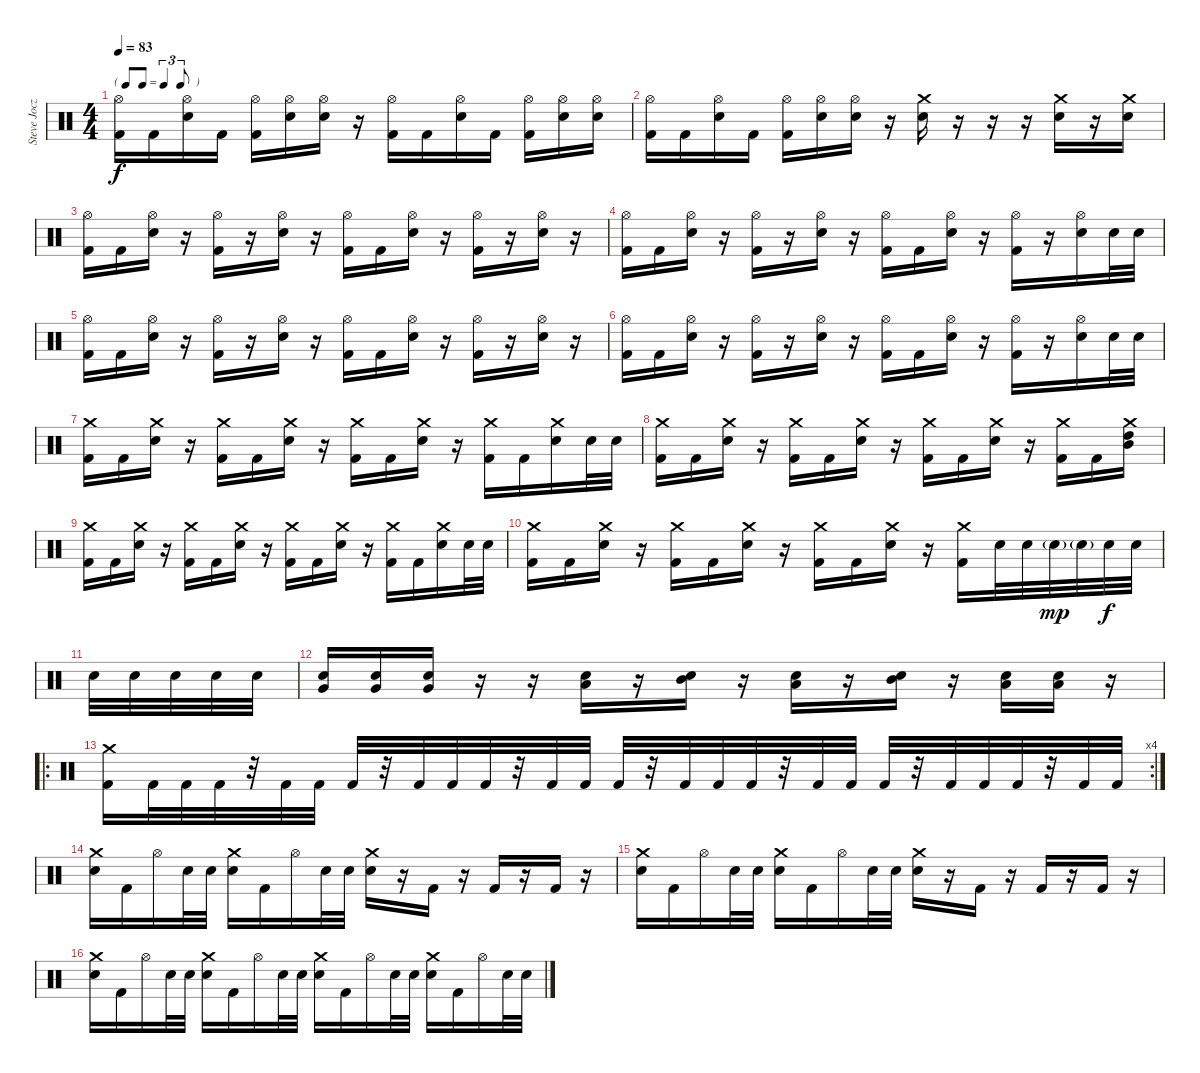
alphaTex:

\track ("Steve Jocz" "Steve Jocz") {instrument percussion}
\staff {score}
\articulation defaults
\ts (4 4)
\tf triplet8th
\tempo 83
\clef neutral
\ks c
("Hi-Hat (open)" "Kick (hit) 2").16{dy f} "Kick (hit) 2".16 ("Hi-Hat (open)" "Electric Snare (hit)").16 "Kick (hit) 2".16 ("Hi-Hat (open)" "Kick (hit) 2").16 ("Hi-Hat (open)" "Electric Snare (hit)").16 ("Hi-Hat (open)" "Electric Snare (hit)").16 r.16 ("Hi-Hat (open)" "Kick (hit) 2").16 "Kick (hit) 2".16 ("Hi-Hat (open)" "Electric Snare (hit)").16 "Kick (hit) 2".16 ("Hi-Hat (open)" "Kick (hit) 2").16 ("Hi-Hat (open)" "Electric Snare (hit)").16 ("Hi-Hat (open)" "Electric Snare (hit)").16 |
("Hi-Hat (open)" "Kick (hit) 2").16 "Kick (hit) 2".16 ("Hi-Hat (open)" "Electric Snare (hit)").16 "Kick (hit) 2".16 ("Hi-Hat (open)" "Kick (hit) 2").16 ("Hi-Hat (open)" "Electric Snare (hit)").16 ("Hi-Hat (open)" "Electric Snare (hit)").16 r.16 ("Electric Snare (hit)" "Crash medium (hit)").16 r.16 r.16 r.16 ("Crash medium (hit)" "Electric Snare (hit)").16 r.16 ("Crash medium (hit)" "Electric Snare (hit)").16 |
("Hi-Hat (open)" "Kick (hit) 2").16 "Kick (hit) 2".16 ("Hi-Hat (open)" "Electric Snare (hit)").16 r.16 ("Hi-Hat (open)" "Kick (hit) 2").16 r.16 ("Hi-Hat (open)" "Electric Snare (hit)").16 r.16 ("Hi-Hat (open)" "Kick (hit) 2").16 "Kick (hit) 2".16 ("Hi-Hat (open)" "Electric Snare (hit)").16 r.16 ("Hi-Hat (open)" "Kick (hit) 2").16 r.16 ("Hi-Hat (open)" "Electric Snare (hit)").16 r.16 |
("Hi-Hat (open)" "Kick (hit) 2").16 "Kick (hit) 2".16 ("Hi-Hat (open)" "Electric Snare (hit)").16 r.16 ("Hi-Hat (open)" "Kick (hit) 2").16 r.16 ("Hi-Hat (open)" "Electric Snare (hit)").16 r.16 ("Hi-Hat (open)" "Kick (hit) 2").16 "Kick (hit) 2".16 ("Hi-Hat (open)" "Electric Snare (hit)").16 r.16 ("Hi-Hat (open)" "Kick (hit) 2").16 r.16 ("Hi-Hat (open)" "Electric Snare (hit)").16 "Electric Snare (hit)".32 "Electric Snare (hit)".32 |
("Hi-Hat (open)" "Kick (hit) 2").16 "Kick (hit) 2".16 ("Hi-Hat (open)" "Electric Snare (hit)").16 r.16 ("Hi-Hat (open)" "Kick (hit) 2").16 r.16 ("Hi-Hat (open)" "Electric Snare (hit)").16 r.16 ("Hi-Hat (open)" "Kick (hit) 2").16 "Kick (hit) 2".16 ("Hi-Hat (open)" "Electric Snare (hit)").16 r.16 ("Hi-Hat (open)" "Kick (hit) 2").16 r.16 ("Hi-Hat (open)" "Electric Snare (hit)").16 r.16 |
("Hi-Hat (open)" "Kick (hit) 2").16 "Kick (hit) 2".16 ("Hi-Hat (open)" "Electric Snare (hit)").16 r.16 ("Hi-Hat (open)" "Kick (hit) 2").16 r.16 ("Hi-Hat (open)" "Electric Snare (hit)").16 r.16 ("Hi-Hat (open)" "Kick (hit) 2").16 "Kick (hit) 2".16 ("Hi-Hat (open)" "Electric Snare (hit)").16 r.16 ("Hi-Hat (open)" "Kick (hit) 2").16 r.16 ("Hi-Hat (open)" "Electric Snare (hit)").16 "Electric Snare (hit)".32 "Electric Snare (hit)".32 |
("Crash medium (hit)" "Kick (hit) 2").16 "Kick (hit) 2".16 ("Crash medium (hit)" "Electric Snare (hit)").16 r.16 ("Crash medium (hit)" "Kick (hit) 2").16 "Kick (hit) 2".16 ("Crash medium (hit)" "Electric Snare (hit)").16 r.16 ("Crash medium (hit)" "Kick (hit) 2").16 "Kick (hit) 2".16 ("Crash medium (hit)" "Electric Snare (hit)").16 r.16 ("Crash medium (hit)" "Kick (hit) 2").16 "Kick (hit) 2".16 ("Crash medium (hit)" "Electric Snare (hit)").16 "Electric Snare (hit)".32 "Electric Snare (hit)".32 |
("Crash medium (hit)" "Kick (hit) 2").16 "Kick (hit) 2".16 ("Crash medium (hit)" "Electric Snare (hit)").16 r.16 ("Crash medium (hit)" "Kick (hit) 2").16 "Kick (hit) 2".16 ("Crash medium (hit)" "Electric Snare (hit)").16 r.16 ("Crash medium (hit)" "Kick (hit) 2").16 "Kick (hit) 2".16 ("Crash medium (hit)" "Electric Snare (hit)").16 r.16 ("Crash medium (hit)" "Kick (hit) 2").16 "Kick (hit) 2".16 ("Crash medium (hit)" "Mid Tom (hit)" "High Tom (hit)").16 |
("Crash medium (hit)" "Kick (hit) 2").16 "Kick (hit) 2".16 ("Crash medium (hit)" "Electric Snare (hit)").16 r.16 ("Crash medium (hit)" "Kick (hit) 2").16 "Kick (hit) 2".16 ("Crash medium (hit)" "Electric Snare (hit)").16 r.16 ("Crash medium (hit)" "Kick (hit) 2").16 "Kick (hit) 2".16 ("Crash medium (hit)" "Electric Snare (hit)").16 r.16 ("Crash medium (hit)" "Kick (hit) 2").16 "Kick (hit) 2".16 ("Crash medium (hit)" "Electric Snare (hit)").16 "Electric Snare (hit)".32 "Electric Snare (hit)".32 |
("Crash medium (hit)" "Kick (hit) 2").16 "Kick (hit) 2".16 ("Crash medium (hit)" "Electric Snare (hit)").16 r.16 ("Crash medium (hit)" "Kick (hit) 2").16 "Kick (hit) 2".16 ("Crash medium (hit)" "Electric Snare (hit)").16 r.16 ("Crash medium (hit)" "Kick (hit) 2").16 "Kick (hit) 2".16 ("Crash medium (hit)" "Electric Snare (hit)").16 r.16 ("Crash medium (hit)" "Kick (hit) 2").16 "Electric Snare (hit)".32 "Electric Snare (hit)".32 "Electric Snare (hit)"{g}.32{dy mp} "Electric Snare (hit)"{g}.32 "Electric Snare (hit)".32{dy f} "Electric Snare (hit)".32 |
"Electric Snare (hit)".32 "Electric Snare (hit)".32 "Electric Snare (hit)".32 "Electric Snare (hit)".32 "Electric Snare (hit)".32 |
("Very Low Tom (hit)" "Electric Snare (hit)").16 ("Very Low Tom (hit)" "Electric Snare (hit)").16 ("Very Low Tom (hit)" "Electric Snare (hit)").16 r.16 r.16 ("Low Tom (hit)" "Electric Snare (hit)").16 r.16 ("Mid Tom (hit)" "Electric Snare (hit)").16 r.16 ("Low Tom (hit)" "Electric Snare (hit)").16 r.16 ("Mid Tom (hit)" "Electric Snare (hit)").16 r.16 ("Low Tom (hit)" "Electric Snare (hit)").16 ("Low Tom (hit)" "Electric Snare (hit)").16 r.16 |
\ro
\rc 4
("Crash medium (hit)" "Kick (hit) 2").16 "Kick (hit) 2".32 "Kick (hit) 2".32 "Kick (hit) 2".32 r.32 "Kick (hit) 2".32 "Kick (hit) 2".32 "Kick (hit) 2".32 r.32 "Kick (hit) 2".32 "Kick (hit) 2".32 "Kick (hit) 2".32 r.32 "Kick (hit) 2".32 "Kick (hit) 2".32 "Kick (hit) 2".32 r.32 "Kick (hit) 2".32 "Kick (hit) 2".32 "Kick (hit) 2".32 r.32 "Kick (hit) 2".32 "Kick (hit) 2".32 "Kick (hit) 2".32 r.32 "Kick (hit) 2".32 "Kick (hit) 2".32 "Kick (hit) 2".32 r.32 "Kick (hit) 2".32 "Kick (hit) 2".32 |
("Crash medium (hit)" "Electric Snare (hit)").16 "Kick (hit) 2".16 "Hi-Hat (open)".16 "Electric Snare (hit)".32 "Electric Snare (hit)".32 ("Crash medium (hit)" "Electric Snare (hit)").16 "Kick (hit) 2".16 "Hi-Hat (open)".16 "Electric Snare (hit)".32 "Electric Snare (hit)".32 ("Electric Snare (hit)" "Crash medium (hit)").16 r.16 "Kick (hit) 2".16 r.16 "Kick (hit) 2".16 r.16 "Kick (hit) 2".16 r.16 |
("Crash medium (hit)" "Electric Snare (hit)").16 "Kick (hit) 2".16 "Hi-Hat (open)".16 "Electric Snare (hit)".32 "Electric Snare (hit)".32 ("Crash medium (hit)" "Electric Snare (hit)").16 "Kick (hit) 2".16 "Hi-Hat (open)".16 "Electric Snare (hit)".32 "Electric Snare (hit)".32 ("Electric Snare (hit)" "Crash medium (hit)").16 r.16 "Kick (hit) 2".16 r.16 "Kick (hit) 2".16 r.16 "Kick (hit) 2".16 r.16 |
("Crash medium (hit)" "Electric Snare (hit)").16 "Kick (hit) 2".16 "Hi-Hat (open)".16 "Electric Snare (hit)".32 "Electric Snare (hit)".32 ("Crash medium (hit)" "Electric Snare (hit)").16 "Kick (hit) 2".16 "Hi-Hat (open)".16 "Electric Snare (hit)".32 "Electric Snare (hit)".32 ("Electric Snare (hit)" "Crash medium (hit)").16 "Kick (hit) 2".16 "Hi-Hat (open)".16 "Electric Snare (hit)".32 "Electric Snare (hit)".32 ("Electric Snare (hit)" "Crash medium (hit)").16 "Kick (hit) 2".16 "Hi-Hat (open)".16 "Electric Snare (hit)".32 "Electric Snare (hit)".32
